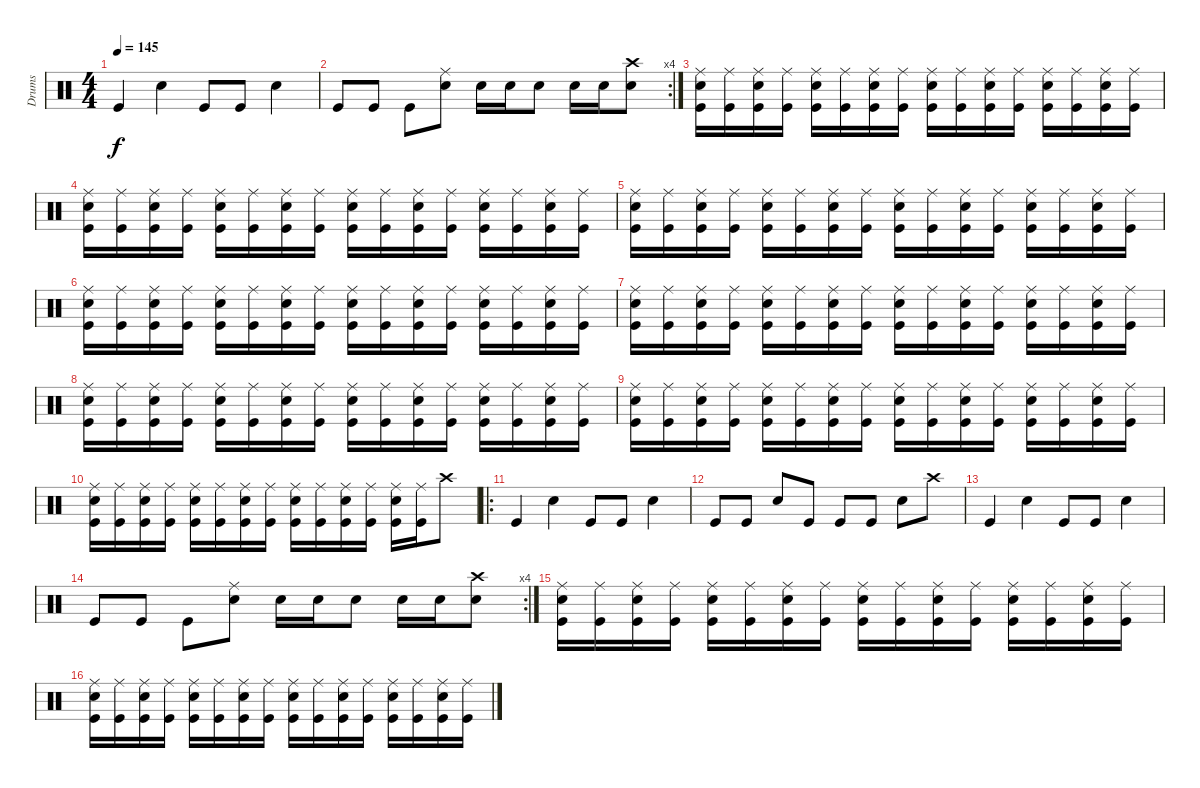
\track ("Drums" "Drums") {instrument percussion}
\staff
\articulation defaults
\ts (4 4)
\tempo 145
\clef neutral
\ks c "Kick (hit)".4{dy f} "Electric Snare (hit)".4 "Kick (hit)".8 "Kick (hit)".8 "Electric Snare (hit)".4
|
\rc 4 "Kick (hit)".8 "Kick (hit)".8 "Kick (hit)".8
("Electric Snare (hit)" "Ride (middle)").8 "Electric Snare (hit)".16 "Electric Snare (hit)".16 "Electric Snare (hit)".8 "Electric Snare (hit)".16 "Electric Snare (hit)".16 ("Electric Snare (hit)" "Crash high (hit)").8 |
("Kick (hit)" "Electric Snare (hit)" "Ride (middle)").16 ("Kick (hit)" "Ride (middle)").16 ("Kick (hit)" "Electric Snare (hit)" "Ride (middle)").16 ("Kick (hit)" "Ride (middle)").16 ("Kick (hit)" "Electric Snare (hit)" "Ride (middle)").16 ("Kick (hit)" "Ride (middle)").16 ("Kick (hit)" "Electric Snare (hit)" "Ride (middle)").16 ("Kick (hit)" "Ride (middle)").16 ("Kick (hit)" "Electric Snare (hit)" "Ride (middle)").16 ("Kick (hit)" "Ride (middle)").16 ("Kick (hit)" "Electric Snare (hit)" "Ride (middle)").16 ("Kick (hit)" "Ride (middle)").16 ("Kick (hit)" "Electric Snare (hit)" "Ride (middle)").16 ("Kick (hit)" "Ride (middle)").16 ("Kick (hit)" "Electric Snare (hit)" "Ride (middle)").16 ("Kick (hit)" "Ride (middle)").16 |
("Kick (hit)" "Electric Snare (hit)" "Ride (middle)").16 ("Kick (hit)" "Ride (middle)").16 ("Kick (hit)" "Electric Snare (hit)" "Ride (middle)").16 ("Kick (hit)" "Ride (middle)").16 ("Kick (hit)" "Electric Snare (hit)" "Ride (middle)").16 ("Kick (hit)" "Ride (middle)").16 ("Kick (hit)" "Electric Snare (hit)" "Ride (middle)").16 ("Kick (hit)" "Ride (middle)").16 ("Kick (hit)" "Electric Snare (hit)" "Ride (middle)").16 ("Kick (hit)" "Ride (middle)").16 ("Kick (hit)" "Electric Snare (hit)" "Ride (middle)").16 ("Kick (hit)" "Ride (middle)").16 ("Kick (hit)" "Electric Snare (hit)" "Ride (middle)").16 ("Kick (hit)" "Ride (middle)").16 ("Kick (hit)" "Electric Snare (hit)" "Ride (middle)").16 ("Kick (hit)" "Ride (middle)").16 |
("Kick (hit)" "Electric Snare (hit)" "Ride (middle)").16 ("Kick (hit)" "Ride (middle)").16 ("Kick (hit)" "Electric Snare (hit)" "Ride (middle)").16 ("Kick (hit)" "Ride (middle)").16 ("Kick (hit)" "Electric Snare (hit)" "Ride (middle)").16 ("Kick (hit)" "Ride (middle)").16 ("Kick (hit)" "Electric Snare (hit)" "Ride (middle)").16 ("Kick (hit)" "Ride (middle)").16 ("Kick (hit)" "Electric Snare (hit)" "Ride (middle)").16 ("Kick (hit)" "Ride (middle)").16 ("Kick (hit)" "Electric Snare (hit)" "Ride (middle)").16 ("Kick (hit)" "Ride (middle)").16 ("Kick (hit)" "Electric Snare (hit)" "Ride (middle)").16 ("Kick (hit)" "Ride (middle)").16 ("Kick (hit)" "Electric Snare (hit)" "Ride (middle)").16 ("Kick (hit)" "Ride (middle)").16 |
("Kick (hit)" "Electric Snare (hit)" "Ride (middle)").16 ("Kick (hit)" "Ride (middle)").16 ("Kick (hit)" "Electric Snare (hit)" "Ride (middle)").16 ("Kick (hit)" "Ride (middle)").16 ("Kick (hit)" "Electric Snare (hit)" "Ride (middle)").16 ("Kick (hit)" "Ride (middle)").16 ("Kick (hit)" "Electric Snare (hit)" "Ride (middle)").16 ("Kick (hit)" "Ride (middle)").16 ("Kick (hit)" "Electric Snare (hit)" "Ride (middle)").16 ("Kick (hit)" "Ride (middle)").16 ("Kick (hit)" "Electric Snare (hit)" "Ride (middle)").16 ("Kick (hit)" "Ride (middle)").16 ("Kick (hit)" "Electric Snare (hit)" "Ride (middle)").16 ("Kick (hit)" "Ride (middle)").16 ("Kick (hit)" "Electric Snare (hit)" "Ride (middle)").16 ("Kick (hit)" "Ride (middle)").16 |
("Kick (hit)" "Electric Snare (hit)" "Ride (middle)").16 ("Kick (hit)" "Ride (middle)").16 ("Kick (hit)" "Electric Snare (hit)" "Ride (middle)").16 ("Kick (hit)" "Ride (middle)").16 ("Kick (hit)" "Electric Snare (hit)" "Ride (middle)").16 ("Kick (hit)" "Ride (middle)").16 ("Kick (hit)" "Electric Snare (hit)" "Ride (middle)").16 ("Kick (hit)" "Ride (middle)").16 ("Kick (hit)" "Electric Snare (hit)" "Ride (middle)").16 ("Kick (hit)" "Ride (middle)").16 ("Kick (hit)" "Electric Snare (hit)" "Ride (middle)").16 ("Kick (hit)" "Ride (middle)").16 ("Kick (hit)" "Electric Snare (hit)" "Ride (middle)").16 ("Kick (hit)" "Ride (middle)").16 ("Kick (hit)" "Electric Snare (hit)" "Ride (middle)").16 ("Kick (hit)" "Ride (middle)").16 |
("Kick (hit)" "Electric Snare (hit)" "Ride (middle)").16 ("Kick (hit)" "Ride (middle)").16 ("Kick (hit)" "Electric Snare (hit)" "Ride (middle)").16 ("Kick (hit)" "Ride (middle)").16 ("Kick (hit)" "Electric Snare (hit)" "Ride (middle)").16 ("Kick (hit)" "Ride (middle)").16 ("Kick (hit)" "Electric Snare (hit)" "Ride (middle)").16 ("Kick (hit)" "Ride (middle)").16 ("Kick (hit)" "Electric Snare (hit)" "Ride (middle)").16 ("Kick (hit)" "Ride (middle)").16 ("Kick (hit)" "Electric Snare (hit)" "Ride (middle)").16 ("Kick (hit)" "Ride (middle)").16 ("Kick (hit)" "Electric Snare (hit)" "Ride (middle)").16 ("Kick (hit)" "Ride (middle)").16 ("Kick (hit)" "Electric Snare (hit)" "Ride (middle)").16 ("Kick (hit)" "Ride (middle)").16 |
("Kick (hit)" "Electric Snare (hit)" "Ride (middle)").16 ("Kick (hit)" "Ride (middle)").16 ("Kick (hit)" "Electric Snare (hit)" "Ride (middle)").16 ("Kick (hit)" "Ride (middle)").16 ("Kick (hit)" "Electric Snare (hit)" "Ride (middle)").16 ("Kick (hit)" "Ride (middle)").16 ("Kick (hit)" "Electric Snare (hit)" "Ride (middle)").16 ("Kick (hit)" "Ride (middle)").16 ("Kick (hit)" "Electric Snare (hit)" "Ride (middle)").16 ("Kick (hit)" "Ride (middle)").16 ("Kick (hit)" "Electric Snare (hit)" "Ride (middle)").16 ("Kick (hit)" "Ride (middle)").16 ("Kick (hit)" "Electric Snare (hit)" "Ride (middle)").16 ("Kick (hit)" "Ride (middle)").16 ("Kick (hit)" "Electric Snare (hit)" "Ride (middle)").16 ("Kick (hit)" "Ride (middle)").16 |
("Kick (hit)" "Electric Snare (hit)" "Ride (middle)").16 ("Kick (hit)" "Ride (middle)").16 ("Kick (hit)" "Electric Snare (hit)" "Ride (middle)").16 ("Kick (hit)" "Ride (middle)").16 ("Kick (hit)" "Electric Snare (hit)" "Ride (middle)").16 ("Kick (hit)" "Ride (middle)").16 ("Kick (hit)" "Electric Snare (hit)" "Ride (middle)").16 ("Kick (hit)" "Ride (middle)").16 ("Kick (hit)" "Electric Snare (hit)" "Ride (middle)").16 ("Kick (hit)" "Ride (middle)").16 ("Kick (hit)" "Electric Snare (hit)" "Ride (middle)").16 ("Kick (hit)" "Ride (middle)").16 ("Kick (hit)" "Electric Snare (hit)" "Ride (middle)").16 ("Kick (hit)" "Ride (middle)").16 "Crash high (hit)".8 |
\ro "Kick (hit)".4 "Electric Snare (hit)".4 "Kick (hit)".8 "Kick (hit)".8 "Electric Snare (hit)".4
|
"Kick (hit)".8 "Kick (hit)".8 "Electric Snare (hit)".8 "Kick (hit)".8 "Kick (hit)".8 "Kick (hit)".8 "Electric Snare (hit)".8 "Crash high (hit)".8 |
"Kick (hit)".4 "Electric Snare (hit)".4 "Kick (hit)".8 "Kick (hit)".8 "Electric Snare (hit)".4 |
\rc 4 "Kick (hit)".8 "Kick (hit)".8 "Kick (hit)".8
("Electric Snare (hit)" "Ride (middle)").8 "Electric Snare (hit)".16 "Electric Snare (hit)".16 "Electric Snare (hit)".8 "Electric Snare (hit)".16 "Electric Snare (hit)".16 ("Electric Snare (hit)" "Crash high (hit)").8 |
("Kick (hit)" "Electric Snare (hit)" "Ride (middle)").16 ("Kick (hit)" "Ride (middle)").16 ("Kick (hit)" "Electric Snare (hit)" "Ride (middle)").16 ("Kick (hit)" "Ride (middle)").16 ("Kick (hit)" "Electric Snare (hit)" "Ride (middle)").16 ("Kick (hit)" "Ride (middle)").16 ("Kick (hit)" "Electric Snare (hit)" "Ride (middle)").16 ("Kick (hit)" "Ride (middle)").16 ("Kick (hit)" "Electric Snare (hit)" "Ride (middle)").16 ("Kick (hit)" "Ride (middle)").16 ("Kick (hit)" "Electric Snare (hit)" "Ride (middle)").16 ("Kick (hit)" "Ride (middle)").16 ("Kick (hit)" "Electric Snare (hit)" "Ride (middle)").16 ("Kick (hit)" "Ride (middle)").16 ("Kick (hit)" "Electric Snare (hit)" "Ride (middle)").16 ("Kick (hit)" "Ride (middle)").16 |
("Kick (hit)" "Electric Snare (hit)" "Ride (middle)").16 ("Kick (hit)" "Ride (middle)").16 ("Kick (hit)" "Electric Snare (hit)" "Ride (middle)").16 ("Kick (hit)" "Ride (middle)").16 ("Kick (hit)" "Electric Snare (hit)" "Ride (middle)").16 ("Kick (hit)" "Ride (middle)").16 ("Kick (hit)" "Electric Snare (hit)" "Ride (middle)").16 ("Kick (hit)" "Ride (middle)").16 ("Kick (hit)" "Electric Snare (hit)" "Ride (middle)").16 ("Kick (hit)" "Ride (middle)").16 ("Kick (hit)" "Electric Snare (hit)" "Ride (middle)").16 ("Kick (hit)" "Ride (middle)").16 ("Kick (hit)" "Electric Snare (hit)" "Ride (middle)").16 ("Kick (hit)" "Ride (middle)").16 ("Kick (hit)" "Electric Snare (hit)" "Ride (middle)").16 ("Kick (hit)" "Ride (middle)").16
